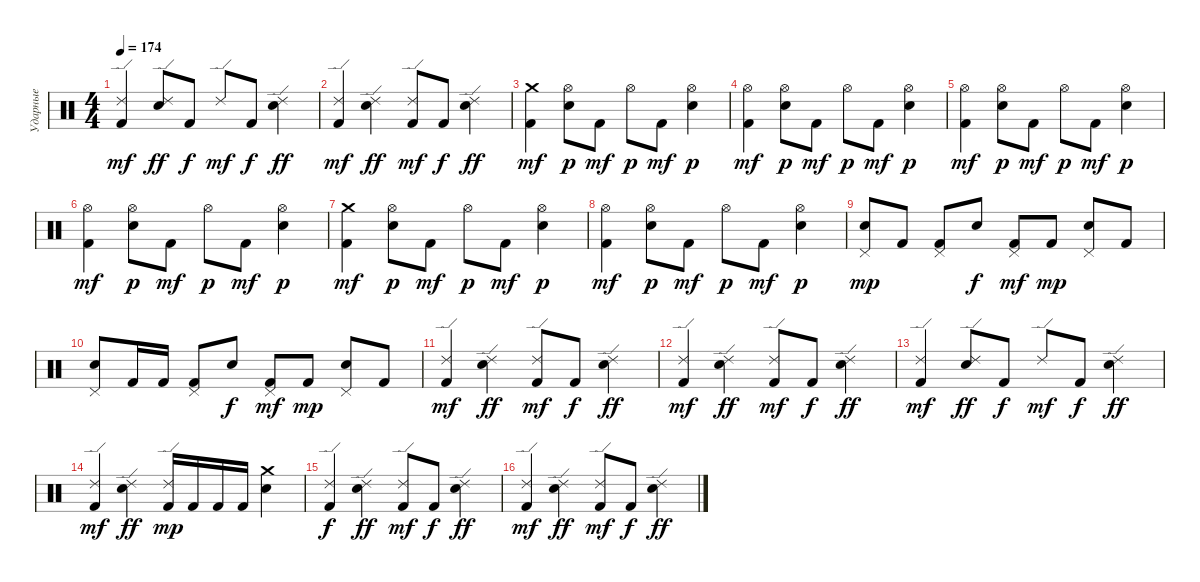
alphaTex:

\track ("Ударные" "Ударные") {instrument percussion}
\staff {score}
\articulation defaults
\ts (4 4)
\tempo 174
\clef neutral
\ks c
("Ride (edge) 2" "Kick (hit) 2").4{dy mf} ("Ride (edge) 2" "Electric Snare (hit)").8{dy ff} "Kick (hit) 2".8{dy f} "Ride (edge) 2".8{dy mf} "Kick (hit) 2".8{dy f} ("Ride (edge) 2" "Electric Snare (hit)").4{dy ff} |
("Ride (edge) 2" "Kick (hit) 2").4{dy mf} ("Ride (edge) 2" "Electric Snare (hit)").4{dy ff} ("Ride (edge) 2" "Kick (hit) 2").8{dy mf} "Kick (hit) 2".8{dy f} ("Ride (edge) 2" "Electric Snare (hit)").4{dy ff} |
("Crash medium (hit)" "Kick (hit) 2").4{dy mf} ("Hi-Hat (open)" "Electric Snare (hit)").8{dy p} "Kick (hit) 2".8{dy mf} "Hi-Hat (open)".8{dy p} "Kick (hit) 2".8{dy mf} ("Hi-Hat (open)" "Electric Snare (hit)").4{dy p} |
("Hi-Hat (open)" "Kick (hit) 2").4{dy mf} ("Hi-Hat (open)" "Electric Snare (hit)").8{dy p} "Kick (hit) 2".8{dy mf} "Hi-Hat (open)".8{dy p} "Kick (hit) 2".8{dy mf} ("Hi-Hat (open)" "Electric Snare (hit)").4{dy p} |
("Hi-Hat (open)" "Kick (hit) 2").4{dy mf} ("Hi-Hat (open)" "Electric Snare (hit)").8{dy p} "Kick (hit) 2".8{dy mf} "Hi-Hat (open)".8{dy p} "Kick (hit) 2".8{dy mf} ("Hi-Hat (open)" "Electric Snare (hit)").4{dy p} |
("Hi-Hat (open)" "Kick (hit) 2").4{dy mf} ("Hi-Hat (open)" "Electric Snare (hit)").8{dy p} "Kick (hit) 2".8{dy mf} "Hi-Hat (open)".8{dy p} "Kick (hit) 2".8{dy mf} ("Hi-Hat (open)" "Electric Snare (hit)").4{dy p} |
("Crash medium (hit)" "Kick (hit) 2").4{dy mf} ("Hi-Hat (open)" "Electric Snare (hit)").8{dy p} "Kick (hit) 2".8{dy mf} "Hi-Hat (open)".8{dy p} "Kick (hit) 2".8{dy mf} ("Hi-Hat (open)" "Electric Snare (hit)").4{dy p} |
("Hi-Hat (open)" "Kick (hit) 2").4{dy mf} ("Hi-Hat (open)" "Electric Snare (hit)").8{dy p} "Kick (hit) 2".8{dy mf} "Hi-Hat (open)".8{dy p} "Kick (hit) 2".8{dy mf} ("Hi-Hat (open)" "Electric Snare (hit)").4{dy p} |
("Pedal Hi-Hat (hit)" "Electric Snare (hit)").8{dy mp} "Kick (hit) 2".8 ("Pedal Hi-Hat (hit)" "Kick (hit) 2").8 "Electric Snare (hit)".8{dy f} ("Pedal Hi-Hat (hit)" "Kick (hit) 2").8{dy mf} "Kick (hit) 2".8{dy mp} ("Pedal Hi-Hat (hit)" "Electric Snare (hit)").8 "Kick (hit) 2".8 |
("Pedal Hi-Hat (hit)" "Electric Snare (hit)").8 "Kick (hit) 2".16 "Kick (hit) 2".16 ("Pedal Hi-Hat (hit)" "Kick (hit) 2").8 "Electric Snare (hit)".8{dy f} ("Pedal Hi-Hat (hit)" "Kick (hit) 2").8{dy mf} "Kick (hit) 2".8{dy mp} ("Pedal Hi-Hat (hit)" "Electric Snare (hit)").8 "Kick (hit) 2".8 |
("Ride (edge) 2" "Kick (hit) 2").4{dy mf} ("Ride (edge) 2" "Electric Snare (hit)").4{dy ff} ("Ride (edge) 2" "Kick (hit) 2").8{dy mf} "Kick (hit) 2".8{dy f} ("Ride (edge) 2" "Electric Snare (hit)").4{dy ff} |
("Ride (edge) 2" "Kick (hit) 2").4{dy mf} ("Ride (edge) 2" "Electric Snare (hit)").4{dy ff} ("Ride (edge) 2" "Kick (hit) 2").8{dy mf} "Kick (hit) 2".8{dy f} ("Ride (edge) 2" "Electric Snare (hit)").4{dy ff} |
("Ride (edge) 2" "Kick (hit) 2").4{dy mf} ("Ride (edge) 2" "Electric Snare (hit)").8{dy ff} "Kick (hit) 2".8{dy f} "Ride (edge) 2".8{dy mf} "Kick (hit) 2".8{dy f} ("Ride (edge) 2" "Electric Snare (hit)").4{dy ff} |
("Ride (edge) 2" "Kick (hit) 2").4{dy mf} ("Ride (edge) 2" "Electric Snare (hit)").4{dy ff} ("Ride (edge) 2" "Kick (hit) 2").16{dy mp} "Kick (hit) 2".16 "Kick (hit) 2".16 "Kick (hit) 2".16 ("Crash medium (hit)" "Electric Snare (hit)").4 |
("Ride (edge) 2" "Kick (hit) 2").4{dy f} ("Ride (edge) 2" "Electric Snare (hit)").4{dy ff} ("Ride (edge) 2" "Kick (hit) 2").8{dy mf} "Kick (hit) 2".8{dy f} ("Ride (edge) 2" "Electric Snare (hit)").4{dy ff} |
("Ride (edge) 2" "Kick (hit) 2").4{dy mf} ("Ride (edge) 2" "Electric Snare (hit)").4{dy ff} ("Ride (edge) 2" "Kick (hit) 2").8{dy mf} "Kick (hit) 2".8{dy f} ("Ride (edge) 2" "Electric Snare (hit)").4{dy ff}
